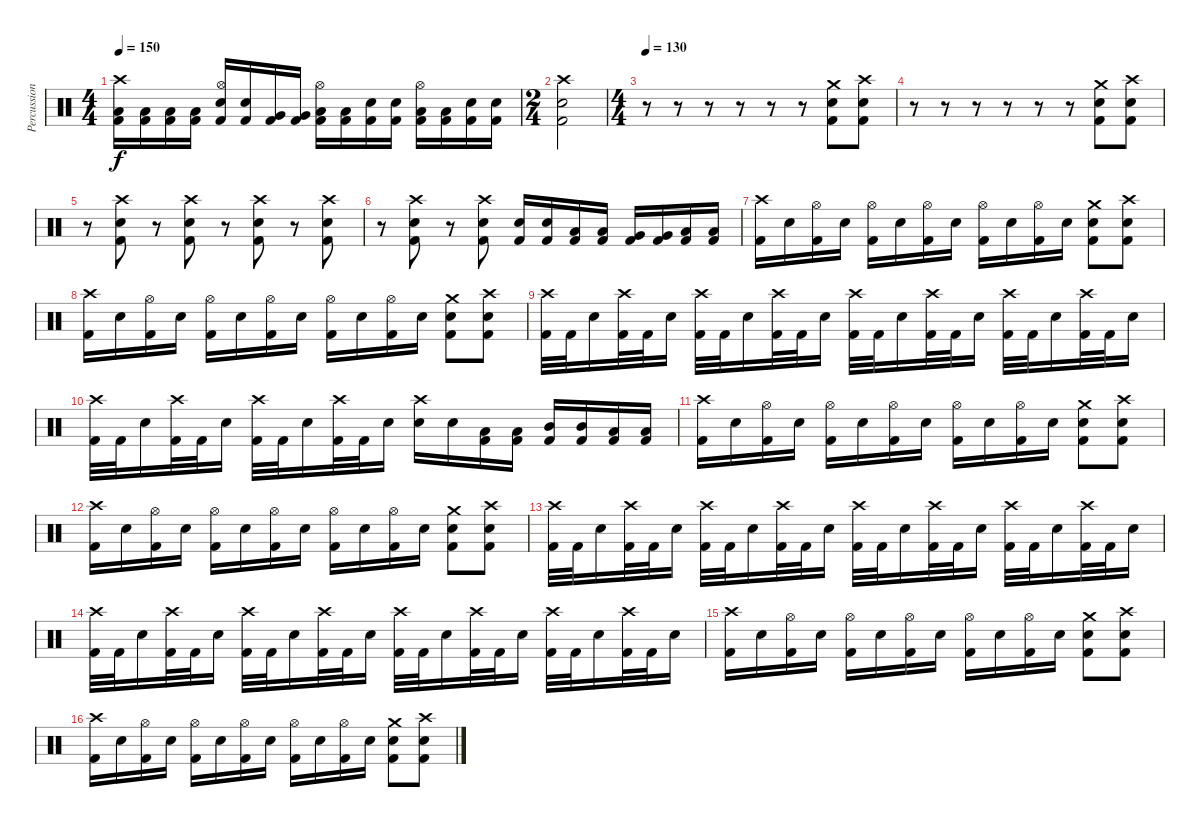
\track ("Percussion" "Percussion") {instrument percussion}
\staff {score}
\articulation defaults
\ts (4 4)
\tempo 150
\clef neutral
\ks c
("Crash high (hit)" "Low Tom (hit)" "Kick (hit) 2").16{dy f} ("Low Tom (hit)" "Kick (hit) 2").16 ("Low Tom (hit)" "Kick (hit) 2").16 ("Low Tom (hit)" "Kick (hit) 2").16 ("Hi-Hat (open)" "Electric Snare (hit)" "Kick (hit) 2").16 ("Electric Snare (hit)" "Kick (hit) 2").16 ("Very Low Tom (hit)" "Kick (hit) 2").16 ("Very Low Tom (hit)" "Kick (hit) 2").16 ("Hi-Hat (open)" "Low Tom (hit)" "Kick (hit) 2").16 ("Low Tom (hit)" "Kick (hit) 2").16 ("Electric Snare (hit)" "Kick (hit) 2").16 ("Electric Snare (hit)" "Kick (hit) 2").16 ("Hi-Hat (open)" "Low Tom (hit)" "Kick (hit) 2").16 ("Low Tom (hit)" "Kick (hit) 2").16 ("Electric Snare (hit)" "Kick (hit) 2").16 ("Electric Snare (hit)" "Kick (hit) 2").16 |
\ts (2 4)
("Crash high (hit)" "Electric Snare (hit)" "Kick (hit) 2").2 |
\ts (4 4)
\tempo 130
r.8 r.8 r.8 r.8 r.8 r.8 ("Crash medium (hit)" "Electric Snare (hit)" "Kick (hit) 2").8 ("Crash high (hit)" "Electric Snare (hit)" "Kick (hit) 2").8 |
r.8 r.8 r.8 r.8 r.8 r.8 ("Crash medium (hit)" "Electric Snare (hit)" "Kick (hit) 2").8 ("Crash high (hit)" "Electric Snare (hit)" "Kick (hit) 2").8 |
r.8 ("Crash high (hit)" "Electric Snare (hit)" "Kick (hit) 2").8 r.8 ("Crash high (hit)" "Electric Snare (hit)" "Kick (hit) 2").8 r.8 ("Crash high (hit)" "Electric Snare (hit)" "Kick (hit) 2").8 r.8 ("Crash high (hit)" "Electric Snare (hit)" "Kick (hit) 2").8 |
r.8 ("Crash high (hit)" "Electric Snare (hit)" "Kick (hit) 2").8 r.8 ("Crash high (hit)" "Electric Snare (hit)" "Kick (hit) 2").8 ("Electric Snare (hit)" "Kick (hit) 2").16 ("Electric Snare (hit)" "Kick (hit) 2").16 ("Low Tom (hit)" "Kick (hit) 2").16 ("Low Tom (hit)" "Kick (hit) 2").16 ("Very Low Tom (hit)" "Kick (hit) 2").16 ("Very Low Tom (hit)" "Kick (hit) 2").16 ("Low Floor Tom (hit)" "Kick (hit) 2").16 ("Low Floor Tom (hit)" "Kick (hit) 2").16 |
("Crash high (hit)" "Kick (hit) 2").16 "Electric Snare (hit)".16 ("Hi-Hat (open)" "Kick (hit) 2").16 "Electric Snare (hit)".16 ("Hi-Hat (open)" "Kick (hit) 2").16 "Electric Snare (hit)".16 ("Hi-Hat (open)" "Kick (hit) 2").16 "Electric Snare (hit)".16 ("Hi-Hat (open)" "Kick (hit) 2").16 "Electric Snare (hit)".16 ("Hi-Hat (open)" "Kick (hit) 2").16 "Electric Snare (hit)".16 ("Crash medium (hit)" "Kick (hit) 2" "Electric Snare (hit)").8 ("Crash high (hit)" "Kick (hit) 2" "Electric Snare (hit)").8 |
("Crash high (hit)" "Kick (hit) 2").16 "Electric Snare (hit)".16 ("Hi-Hat (open)" "Kick (hit) 2").16 "Electric Snare (hit)".16 ("Hi-Hat (open)" "Kick (hit) 2").16 "Electric Snare (hit)".16 ("Hi-Hat (open)" "Kick (hit) 2").16 "Electric Snare (hit)".16 ("Hi-Hat (open)" "Kick (hit) 2").16 "Electric Snare (hit)".16 ("Hi-Hat (open)" "Kick (hit) 2").16 "Electric Snare (hit)".16 ("Crash medium (hit)" "Kick (hit) 2" "Electric Snare (hit)").8 ("Crash high (hit)" "Kick (hit) 2" "Electric Snare (hit)").8 |
("Crash high (hit)" "Kick (hit) 2").32 "Kick (hit) 2".32 "Electric Snare (hit)".16 ("Crash high (hit)" "Kick (hit) 2").32 "Kick (hit) 2".32 "Electric Snare (hit)".16 ("Crash high (hit)" "Kick (hit) 2").32 "Kick (hit) 2".32 "Electric Snare (hit)".16 ("Crash high (hit)" "Kick (hit) 2").32 "Kick (hit) 2".32 "Electric Snare (hit)".16 ("Crash high (hit)" "Kick (hit) 2").32 "Kick (hit) 2".32 "Electric Snare (hit)".16 ("Crash high (hit)" "Kick (hit) 2").32 "Kick (hit) 2".32 "Electric Snare (hit)".16 ("Crash high (hit)" "Kick (hit) 2").32 "Kick (hit) 2".32 "Electric Snare (hit)".16 ("Crash high (hit)" "Kick (hit) 2").32 "Kick (hit) 2".32 "Electric Snare (hit)".16 |
("Crash high (hit)" "Kick (hit) 2").32 "Kick (hit) 2".32 "Electric Snare (hit)".16 ("Crash high (hit)" "Kick (hit) 2").32 "Kick (hit) 2".32 "Electric Snare (hit)".16 ("Crash high (hit)" "Kick (hit) 2").32 "Kick (hit) 2".32 "Electric Snare (hit)".16 ("Crash high (hit)" "Kick (hit) 2").32 "Kick (hit) 2".32 "Electric Snare (hit)".16 ("Crash high (hit)" "Electric Snare (hit)").16 "Electric Snare (hit)".16 ("Low Tom (hit)" "Kick (hit) 2").16 ("Low Tom (hit)" "Kick (hit) 2").16 ("Mid Tom (hit)" "Kick (hit) 2").16 ("Mid Tom (hit)" "Kick (hit) 2").16 ("Low Tom (hit)" "Kick (hit) 2").16 ("Low Tom (hit)" "Kick (hit) 2").16 |
("Crash high (hit)" "Kick (hit) 2").16 "Electric Snare (hit)".16 ("Hi-Hat (open)" "Kick (hit) 2").16 "Electric Snare (hit)".16 ("Hi-Hat (open)" "Kick (hit) 2").16 "Electric Snare (hit)".16 ("Hi-Hat (open)" "Kick (hit) 2").16 "Electric Snare (hit)".16 ("Hi-Hat (open)" "Kick (hit) 2").16 "Electric Snare (hit)".16 ("Hi-Hat (open)" "Kick (hit) 2").16 "Electric Snare (hit)".16 ("Crash medium (hit)" "Kick (hit) 2" "Electric Snare (hit)").8 ("Crash high (hit)" "Kick (hit) 2" "Electric Snare (hit)").8 |
("Crash high (hit)" "Kick (hit) 2").16 "Electric Snare (hit)".16 ("Hi-Hat (open)" "Kick (hit) 2").16 "Electric Snare (hit)".16 ("Hi-Hat (open)" "Kick (hit) 2").16 "Electric Snare (hit)".16 ("Hi-Hat (open)" "Kick (hit) 2").16 "Electric Snare (hit)".16 ("Hi-Hat (open)" "Kick (hit) 2").16 "Electric Snare (hit)".16 ("Hi-Hat (open)" "Kick (hit) 2").16 "Electric Snare (hit)".16 ("Crash medium (hit)" "Kick (hit) 2" "Electric Snare (hit)").8 ("Crash high (hit)" "Kick (hit) 2" "Electric Snare (hit)").8 |
("Crash high (hit)" "Kick (hit) 2").32 "Kick (hit) 2".32 "Electric Snare (hit)".16 ("Crash high (hit)" "Kick (hit) 2").32 "Kick (hit) 2".32 "Electric Snare (hit)".16 ("Crash high (hit)" "Kick (hit) 2").32 "Kick (hit) 2".32 "Electric Snare (hit)".16 ("Crash high (hit)" "Kick (hit) 2").32 "Kick (hit) 2".32 "Electric Snare (hit)".16 ("Crash high (hit)" "Kick (hit) 2").32 "Kick (hit) 2".32 "Electric Snare (hit)".16 ("Crash high (hit)" "Kick (hit) 2").32 "Kick (hit) 2".32 "Electric Snare (hit)".16 ("Crash high (hit)" "Kick (hit) 2").32 "Kick (hit) 2".32 "Electric Snare (hit)".16 ("Crash high (hit)" "Kick (hit) 2").32 "Kick (hit) 2".32 "Electric Snare (hit)".16 |
("Crash high (hit)" "Kick (hit) 2").32 "Kick (hit) 2".32 "Electric Snare (hit)".16 ("Crash high (hit)" "Kick (hit) 2").32 "Kick (hit) 2".32 "Electric Snare (hit)".16 ("Crash high (hit)" "Kick (hit) 2").32 "Kick (hit) 2".32 "Electric Snare (hit)".16 ("Crash high (hit)" "Kick (hit) 2").32 "Kick (hit) 2".32 "Electric Snare (hit)".16 ("Crash high (hit)" "Kick (hit) 2").32 "Kick (hit) 2".32 "Electric Snare (hit)".16 ("Crash high (hit)" "Kick (hit) 2").32 "Kick (hit) 2".32 "Electric Snare (hit)".16 ("Crash high (hit)" "Kick (hit) 2").32 "Kick (hit) 2".32 "Electric Snare (hit)".16 ("Crash high (hit)" "Kick (hit) 2").32 "Kick (hit) 2".32 "Electric Snare (hit)".16 |
("Crash high (hit)" "Kick (hit) 2").16 "Electric Snare (hit)".16 ("Hi-Hat (open)" "Kick (hit) 2").16 "Electric Snare (hit)".16 ("Hi-Hat (open)" "Kick (hit) 2").16 "Electric Snare (hit)".16 ("Hi-Hat (open)" "Kick (hit) 2").16 "Electric Snare (hit)".16 ("Hi-Hat (open)" "Kick (hit) 2").16 "Electric Snare (hit)".16 ("Hi-Hat (open)" "Kick (hit) 2").16 "Electric Snare (hit)".16 ("Crash medium (hit)" "Kick (hit) 2" "Electric Snare (hit)").8 ("Crash high (hit)" "Kick (hit) 2" "Electric Snare (hit)").8 |
("Crash high (hit)" "Kick (hit) 2").16 "Electric Snare (hit)".16 ("Hi-Hat (open)" "Kick (hit) 2").16 "Electric Snare (hit)".16 ("Hi-Hat (open)" "Kick (hit) 2").16 "Electric Snare (hit)".16 ("Hi-Hat (open)" "Kick (hit) 2").16 "Electric Snare (hit)".16 ("Hi-Hat (open)" "Kick (hit) 2").16 "Electric Snare (hit)".16 ("Hi-Hat (open)" "Kick (hit) 2").16 "Electric Snare (hit)".16 ("Crash medium (hit)" "Kick (hit) 2" "Electric Snare (hit)").8 ("Crash high (hit)" "Kick (hit) 2" "Electric Snare (hit)").8
